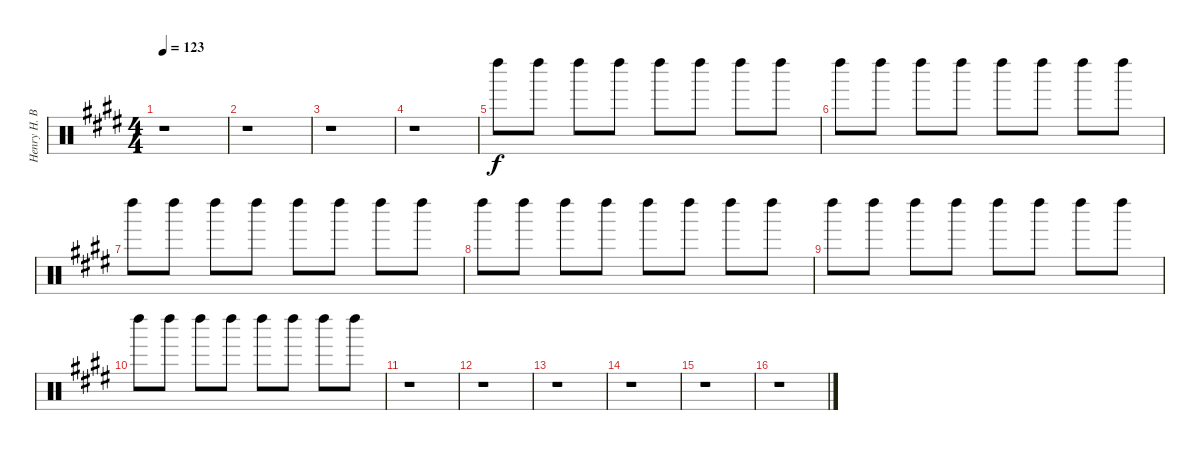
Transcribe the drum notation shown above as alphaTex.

\track ("Henry H. Bomb Weck Maracas" "Henry H. B") {instrument percussion}
\staff {score}
\articulation defaults
\ts (4 4)
\tempo 123
\clef neutral
\ks e
r.1{dy f} |
r.1 |
r.1 |
r.1 |
"Left Maraca (hit)".8{volume 12} "Left Maraca (hit)".8 "Left Maraca (hit)".8 "Left Maraca (hit)".8 "Left Maraca (hit)".8 "Left Maraca (hit)".8 "Left Maraca (hit)".8 "Left Maraca (hit)".8 |
"Left Maraca (hit)".8 "Left Maraca (hit)".8 "Left Maraca (hit)".8 "Left Maraca (hit)".8 "Left Maraca (hit)".8 "Left Maraca (hit)".8 "Left Maraca (hit)".8 "Left Maraca (hit)".8 |
"Left Maraca (hit)".8 "Left Maraca (hit)".8 "Left Maraca (hit)".8 "Left Maraca (hit)".8 "Left Maraca (hit)".8 "Left Maraca (hit)".8 "Left Maraca (hit)".8 "Left Maraca (hit)".8 |
"Left Maraca (hit)".8 "Left Maraca (hit)".8 "Left Maraca (hit)".8 "Left Maraca (hit)".8 "Left Maraca (hit)".8 "Left Maraca (hit)".8 "Left Maraca (hit)".8 "Left Maraca (hit)".8 |
"Left Maraca (hit)".8 "Left Maraca (hit)".8 "Left Maraca (hit)".8 "Left Maraca (hit)".8 "Left Maraca (hit)".8 "Left Maraca (hit)".8 "Left Maraca (hit)".8 "Left Maraca (hit)".8 |
"Left Maraca (hit)".8 "Left Maraca (hit)".8 "Left Maraca (hit)".8 "Left Maraca (hit)".8 "Left Maraca (hit)".8 "Left Maraca (hit)".8 "Left Maraca (hit)".8 "Left Maraca (hit)".8 |
r.1 |
r.1 |
r.1 |
r.1 |
r.1 |
r.1
